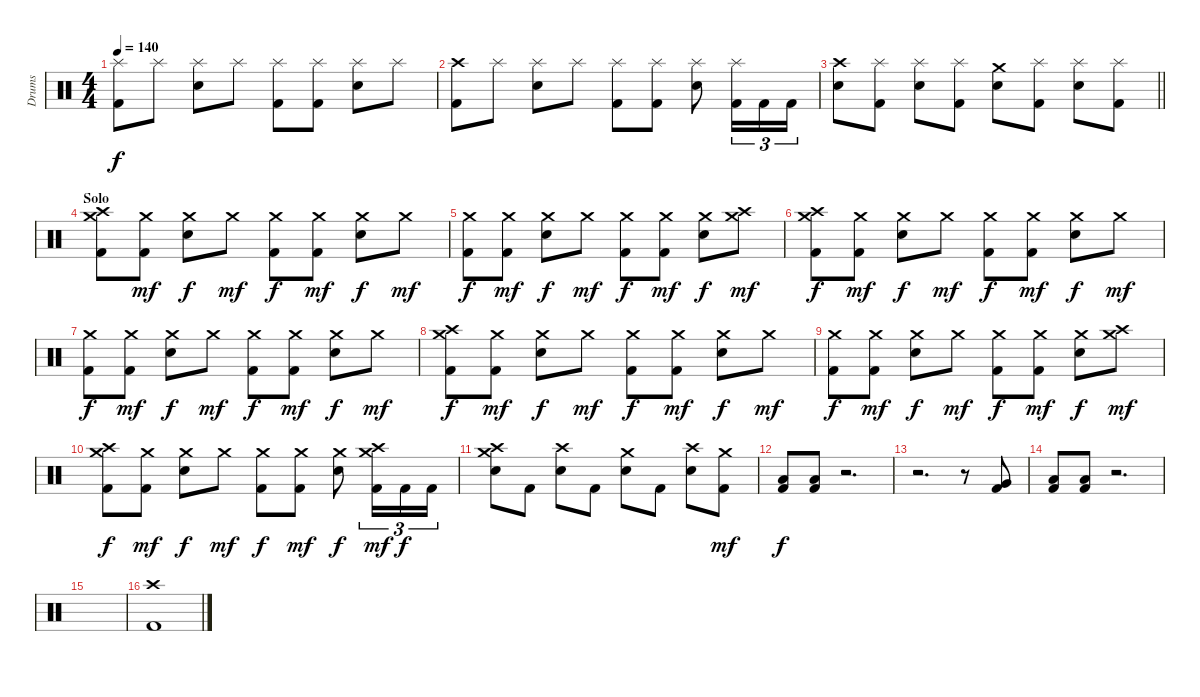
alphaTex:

\track ("Drums" "Drums") {instrument percussion}
\staff {score}
\articulation defaults
\ts (4 4)
\tempo 140
\clef neutral
\ks c
("Splash (hit)" "Kick (hit) 2").8{dy f} "Splash (hit)".8 ("Splash (hit)" "Snare (hit) 2").8 "Splash (hit)".8 ("Splash (hit)" "Kick (hit) 2").8 ("Splash (hit)" "Kick (hit) 2").8 ("Splash (hit)" "Snare (hit) 2").8 "Splash (hit)".8 |
("Crash high (hit)" "Kick (hit) 2").8 "Splash (hit)".8 ("Splash (hit)" "Snare (hit) 2").8 "Splash (hit)".8 ("Splash (hit)" "Kick (hit) 2").8 ("Splash (hit)" "Kick (hit) 2").8 ("Splash (hit)" "Snare (hit) 2").8 ("Splash (hit)" "Kick (hit) 2").16{tu (3 2)} "Kick (hit) 2".16{tu (3 2)} "Kick (hit) 2".16{tu (3 2)} |
\barLineRight lightlight
("Crash high (hit)" "Snare (hit) 2").8 ("Splash (hit)" "Kick (hit) 2").8 ("Splash (hit)" "Snare (hit) 2").8 ("Splash (hit)" "Kick (hit) 2").8 ("Crash medium (hit)" "Snare (hit) 2").8 ("Splash (hit)" "Kick (hit) 2").8 ("Splash (hit)" "Snare (hit) 2").8 ("Splash (hit)" "Kick (hit) 2").8 |
\section ("" "Solo")
("Crash high (hit)" "Crash medium (hit)" "Kick (hit) 2").8 ("Crash medium (hit)" "Kick (hit) 2").8{dy mf} ("Crash medium (hit)" "Snare (hit) 2").8{dy f} "Crash medium (hit)".8{dy mf} ("Crash medium (hit)" "Kick (hit) 2").8{dy f} ("Crash medium (hit)" "Kick (hit) 2").8{dy mf} ("Crash medium (hit)" "Snare (hit) 2").8{dy f} "Crash medium (hit)".8{dy mf} |
("Crash medium (hit)" "Kick (hit) 2").8{dy f} ("Crash medium (hit)" "Kick (hit) 2").8{dy mf} ("Crash medium (hit)" "Snare (hit) 2").8{dy f} "Crash medium (hit)".8{dy mf} ("Crash medium (hit)" "Kick (hit) 2").8{dy f} ("Crash medium (hit)" "Kick (hit) 2").8{dy mf} ("Crash medium (hit)" "Snare (hit) 2").8{dy f} ("Crash high (hit)" "Crash medium (hit)").8{dy mf} |
("Crash high (hit)" "Crash medium (hit)" "Kick (hit) 2").8{dy f} ("Crash medium (hit)" "Kick (hit) 2").8{dy mf} ("Crash medium (hit)" "Snare (hit) 2").8{dy f} "Crash medium (hit)".8{dy mf} ("Crash medium (hit)" "Kick (hit) 2").8{dy f} ("Crash medium (hit)" "Kick (hit) 2").8{dy mf} ("Crash medium (hit)" "Snare (hit) 2").8{dy f} "Crash medium (hit)".8{dy mf} |
("Crash medium (hit)" "Kick (hit) 2").8{dy f} ("Crash medium (hit)" "Kick (hit) 2").8{dy mf} ("Crash medium (hit)" "Snare (hit) 2").8{dy f} "Crash medium (hit)".8{dy mf} ("Crash medium (hit)" "Kick (hit) 2").8{dy f} ("Crash medium (hit)" "Kick (hit) 2").8{dy mf} ("Crash medium (hit)" "Snare (hit) 2").8{dy f} "Crash medium (hit)".8{dy mf} |
("Crash high (hit)" "Crash medium (hit)" "Kick (hit) 2").8{dy f} ("Crash medium (hit)" "Kick (hit) 2").8{dy mf} ("Crash medium (hit)" "Snare (hit) 2").8{dy f} "Crash medium (hit)".8{dy mf} ("Crash medium (hit)" "Kick (hit) 2").8{dy f} ("Crash medium (hit)" "Kick (hit) 2").8{dy mf} ("Crash medium (hit)" "Snare (hit) 2").8{dy f} "Crash medium (hit)".8{dy mf} |
("Crash medium (hit)" "Kick (hit) 2").8{dy f} ("Crash medium (hit)" "Kick (hit) 2").8{dy mf} ("Crash medium (hit)" "Snare (hit) 2").8{dy f} "Crash medium (hit)".8{dy mf} ("Crash medium (hit)" "Kick (hit) 2").8{dy f} ("Crash medium (hit)" "Kick (hit) 2").8{dy mf} ("Crash medium (hit)" "Snare (hit) 2").8{dy f} ("Crash high (hit)" "Crash medium (hit)").8{dy mf} |
("Crash high (hit)" "Crash medium (hit)" "Kick (hit) 2").8{dy f} ("Crash medium (hit)" "Kick (hit) 2").8{dy mf} ("Crash medium (hit)" "Snare (hit) 2").8{dy f} "Crash medium (hit)".8{dy mf} ("Crash medium (hit)" "Kick (hit) 2").8{dy f} ("Crash medium (hit)" "Kick (hit) 2").8{dy mf} ("Crash medium (hit)" "Snare (hit) 2").8{dy f} ("Crash high (hit)" "Crash medium (hit)" "Kick (hit) 2").16{tu (3 2) dy mf} "Kick (hit) 2".16{tu (3 2) dy f} "Kick (hit) 2".16{tu (3 2)} |
("Crash high (hit)" "Crash medium (hit)" "Snare (hit) 2").8 "Kick (hit) 2".8 ("Crash high (hit)" "Snare (hit) 2").8 "Kick (hit) 2".8 ("Crash medium (hit)" "Snare (hit) 2").8 "Kick (hit) 2".8 ("Crash high (hit)" "Snare (hit) 2").8 ("Crash medium (hit)" "Kick (hit) 2").8{dy mf} |
("Low Tom (hit)" "Kick (hit) 2").8{dy f} ("Low Tom (hit)" "Kick (hit) 2").8 r.2{d} |
r.2{d} r.8 ("Very Low Tom (hit)" "Kick (hit) 2").8 |
("Low Tom (hit)" "Kick (hit) 2").8 ("Low Tom (hit)" "Kick (hit) 2").8 r.2{d} |
|
("Crash high (hit)" "Kick (hit) 2").1
